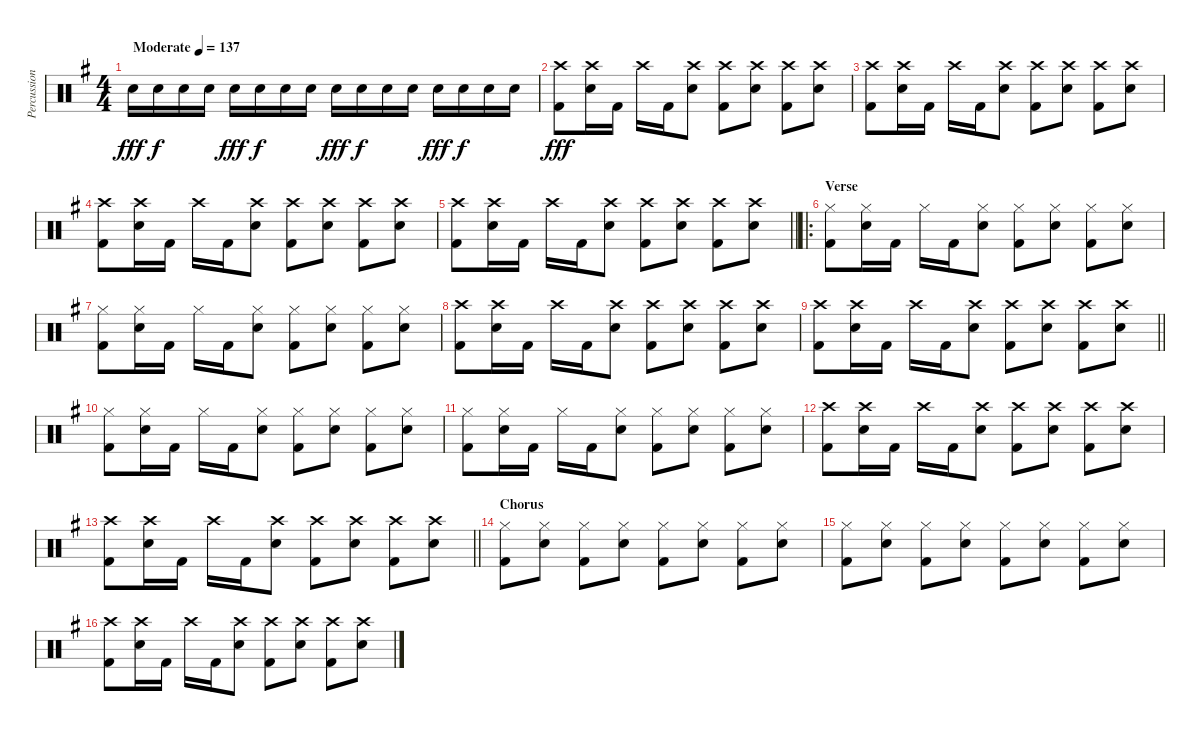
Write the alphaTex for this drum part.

\track ("Percussion" "Percussion") {instrument percussion}
\staff {score}
\articulation defaults
\ts (4 4)
\tempo (137 "Moderate")
\clef neutral
\ks g "Electric Snare (hit)".16{dy fff} "Electric Snare (hit)".16{dy f} "Electric Snare (hit)".16 "Electric Snare (hit)".16 "Electric Snare (hit)".16{dy fff} "Electric Snare (hit)".16{dy f} "Electric Snare (hit)".16 "Electric Snare (hit)".16 "Electric Snare (hit)".16{dy fff} "Electric Snare (hit)".16{dy f} "Electric Snare (hit)".16 "Electric Snare (hit)".16 "Electric Snare (hit)".16{dy fff} "Electric Snare (hit)".16{dy f} "Electric Snare (hit)".16 "Electric Snare (hit)".16
|
("Crash high (hit)" "Kick (hit) 2").8{dy fff} ("Crash high (hit)" "Electric Snare (hit)").16 "Kick (hit) 2".16 "Crash high (hit)".16 "Kick (hit) 2".16 ("Crash high (hit)" "Electric Snare (hit)").8 ("Crash high (hit)" "Kick (hit) 2").8 ("Crash high (hit)" "Electric Snare (hit)").8 ("Crash high (hit)" "Kick (hit) 2").8 ("Crash high (hit)" "Electric Snare (hit)").8 |
("Crash high (hit)" "Kick (hit) 2").8 ("Crash high (hit)" "Electric Snare (hit)").16 "Kick (hit) 2".16 "Crash high (hit)".16 "Kick (hit) 2".16 ("Crash high (hit)" "Electric Snare (hit)").8 ("Crash high (hit)" "Kick (hit) 2").8 ("Crash high (hit)" "Electric Snare (hit)").8 ("Crash high (hit)" "Kick (hit) 2").8 ("Crash high (hit)" "Electric Snare (hit)").8 |
("Crash high (hit)" "Kick (hit) 2").8 ("Crash high (hit)" "Electric Snare (hit)").16 "Kick (hit) 2".16 "Crash high (hit)".16 "Kick (hit) 2".16 ("Crash high (hit)" "Electric Snare (hit)").8 ("Crash high (hit)" "Kick (hit) 2").8 ("Crash high (hit)" "Electric Snare (hit)").8 ("Crash high (hit)" "Kick (hit) 2").8 ("Crash high (hit)" "Electric Snare (hit)").8 |
\barLineRight lightlight
("Crash high (hit)" "Kick (hit) 2").8 ("Crash high (hit)" "Electric Snare (hit)").16 "Kick (hit) 2".16 "Crash high (hit)".16 "Kick (hit) 2".16 ("Crash high (hit)" "Electric Snare (hit)").8 ("Crash high (hit)" "Kick (hit) 2").8 ("Crash high (hit)" "Electric Snare (hit)").8 ("Crash high (hit)" "Kick (hit) 2").8 ("Crash high (hit)" "Electric Snare (hit)").8 |
\ro
\section ("" "Verse")
("Hi-Hat (closed)" "Kick (hit) 2").8 ("Hi-Hat (closed)" "Electric Snare (hit)").16 "Kick (hit) 2".16 "Hi-Hat (closed)".16 "Kick (hit) 2".16 ("Hi-Hat (closed)" "Electric Snare (hit)").8 ("Hi-Hat (closed)" "Kick (hit) 2").8 ("Hi-Hat (closed)" "Electric Snare (hit)").8 ("Hi-Hat (closed)" "Kick (hit) 2").8 ("Hi-Hat (closed)" "Electric Snare (hit)").8 |
("Hi-Hat (closed)" "Kick (hit) 2").8 ("Hi-Hat (closed)" "Electric Snare (hit)").16 "Kick (hit) 2".16 "Hi-Hat (closed)".16 "Kick (hit) 2".16 ("Hi-Hat (closed)" "Electric Snare (hit)").8 ("Hi-Hat (closed)" "Kick (hit) 2").8 ("Hi-Hat (closed)" "Electric Snare (hit)").8 ("Hi-Hat (closed)" "Kick (hit) 2").8 ("Hi-Hat (closed)" "Electric Snare (hit)").8 |
("Crash high (hit)" "Kick (hit) 2").8 ("Crash high (hit)" "Electric Snare (hit)").16 "Kick (hit) 2".16 "Crash high (hit)".16 "Kick (hit) 2".16 ("Crash high (hit)" "Electric Snare (hit)").8 ("Crash high (hit)" "Kick (hit) 2").8 ("Crash high (hit)" "Electric Snare (hit)").8 ("Crash high (hit)" "Kick (hit) 2").8 ("Crash high (hit)" "Electric Snare (hit)").8 |
\barLineRight lightlight
("Crash high (hit)" "Kick (hit) 2").8 ("Crash high (hit)" "Electric Snare (hit)").16 "Kick (hit) 2".16 "Crash high (hit)".16 "Kick (hit) 2".16 ("Crash high (hit)" "Electric Snare (hit)").8 ("Crash high (hit)" "Kick (hit) 2").8 ("Crash high (hit)" "Electric Snare (hit)").8 ("Crash high (hit)" "Kick (hit) 2").8 ("Crash high (hit)" "Electric Snare (hit)").8 |
("Hi-Hat (closed)" "Kick (hit) 2").8 ("Hi-Hat (closed)" "Electric Snare (hit)").16 "Kick (hit) 2".16 "Hi-Hat (closed)".16 "Kick (hit) 2".16 ("Hi-Hat (closed)" "Electric Snare (hit)").8 ("Hi-Hat (closed)" "Kick (hit) 2").8 ("Hi-Hat (closed)" "Electric Snare (hit)").8 ("Hi-Hat (closed)" "Kick (hit) 2").8 ("Hi-Hat (closed)" "Electric Snare (hit)").8 |
("Hi-Hat (closed)" "Kick (hit) 2").8 ("Hi-Hat (closed)" "Electric Snare (hit)").16 "Kick (hit) 2".16 "Hi-Hat (closed)".16 "Kick (hit) 2".16 ("Hi-Hat (closed)" "Electric Snare (hit)").8 ("Hi-Hat (closed)" "Kick (hit) 2").8 ("Hi-Hat (closed)" "Electric Snare (hit)").8 ("Hi-Hat (closed)" "Kick (hit) 2").8 ("Hi-Hat (closed)" "Electric Snare (hit)").8 |
("Crash high (hit)" "Kick (hit) 2").8 ("Crash high (hit)" "Electric Snare (hit)").16 "Kick (hit) 2".16 "Crash high (hit)".16 "Kick (hit) 2".16 ("Crash high (hit)" "Electric Snare (hit)").8 ("Crash high (hit)" "Kick (hit) 2").8 ("Crash high (hit)" "Electric Snare (hit)").8 ("Crash high (hit)" "Kick (hit) 2").8 ("Crash high (hit)" "Electric Snare (hit)").8 |
\barLineRight lightlight
("Crash high (hit)" "Kick (hit) 2").8 ("Crash high (hit)" "Electric Snare (hit)").16 "Kick (hit) 2".16 "Crash high (hit)".16 "Kick (hit) 2".16 ("Crash high (hit)" "Electric Snare (hit)").8 ("Crash high (hit)" "Kick (hit) 2").8 ("Crash high (hit)" "Electric Snare (hit)").8 ("Crash high (hit)" "Kick (hit) 2").8 ("Crash high (hit)" "Electric Snare (hit)").8 |
\section ("" "Chorus")
("Hi-Hat (closed)" "Kick (hit) 2").8 ("Hi-Hat (closed)" "Electric Snare (hit)").8 ("Hi-Hat (closed)" "Kick (hit) 2").8 ("Hi-Hat (closed)" "Electric Snare (hit)").8 ("Hi-Hat (closed)" "Kick (hit) 2").8 ("Hi-Hat (closed)" "Electric Snare (hit)").8 ("Hi-Hat (closed)" "Kick (hit) 2").8 ("Hi-Hat (closed)" "Electric Snare (hit)").8 |
("Hi-Hat (closed)" "Kick (hit) 2").8 ("Hi-Hat (closed)" "Electric Snare (hit)").8 ("Hi-Hat (closed)" "Kick (hit) 2").8 ("Hi-Hat (closed)" "Electric Snare (hit)").8 ("Hi-Hat (closed)" "Kick (hit) 2").8 ("Hi-Hat (closed)" "Electric Snare (hit)").8 ("Hi-Hat (closed)" "Kick (hit) 2").8 ("Hi-Hat (closed)" "Electric Snare (hit)").8 |
("Crash high (hit)" "Kick (hit) 2").8 ("Crash high (hit)" "Electric Snare (hit)").16 "Kick (hit) 2".16 "Crash high (hit)".16 "Kick (hit) 2".16 ("Crash high (hit)" "Electric Snare (hit)").8 ("Crash high (hit)" "Kick (hit) 2").8 ("Crash high (hit)" "Electric Snare (hit)").8 ("Crash high (hit)" "Kick (hit) 2").8 ("Crash high (hit)" "Electric Snare (hit)").8
